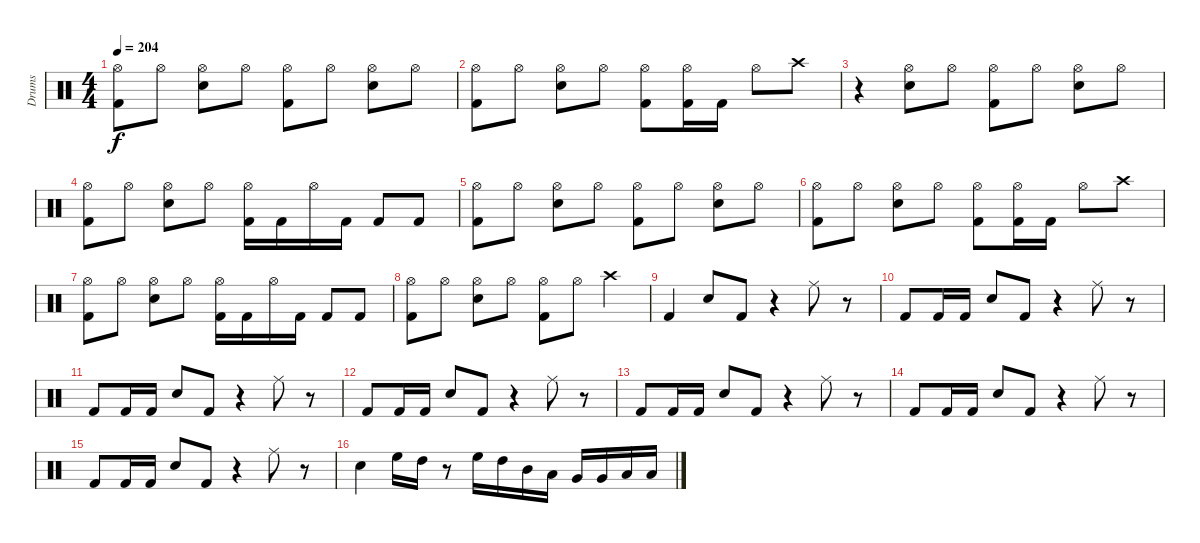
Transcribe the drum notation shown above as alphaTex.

\track ("Drums" "Drums") {instrument percussion}
\staff {score}
\articulation defaults
\ts (4 4)
\tempo 204
\clef neutral
\ks c
("Hi-Hat (open)" "Kick (hit) 2").8{dy f} "Hi-Hat (open)".8 ("Hi-Hat (open)" "Snare (hit) 2").8 "Hi-Hat (open)".8 ("Hi-Hat (open)" "Kick (hit) 2").8 "Hi-Hat (open)".8 ("Hi-Hat (open)" "Snare (hit) 2").8 "Hi-Hat (open)".8 |
("Hi-Hat (open)" "Kick (hit) 2").8 "Hi-Hat (open)".8 ("Hi-Hat (open)" "Snare (hit) 2").8 "Hi-Hat (open)".8 ("Hi-Hat (open)" "Kick (hit) 2").8 ("Hi-Hat (open)" "Kick (hit) 2").16 "Kick (hit) 2".16 "Hi-Hat (open)".8 "Crash high (hit)".8 |
r.4 ("Hi-Hat (open)" "Snare (hit) 2").8 "Hi-Hat (open)".8 ("Hi-Hat (open)" "Kick (hit) 2").8 "Hi-Hat (open)".8 ("Hi-Hat (open)" "Snare (hit) 2").8 "Hi-Hat (open)".8 |
("Hi-Hat (open)" "Kick (hit) 2").8 "Hi-Hat (open)".8 ("Hi-Hat (open)" "Snare (hit) 2").8 "Hi-Hat (open)".8 ("Hi-Hat (open)" "Kick (hit) 2").16 "Kick (hit) 2".16 "Hi-Hat (open)".16 "Kick (hit) 2".16 "Kick (hit) 2".8 "Kick (hit) 2".8 |
("Hi-Hat (open)" "Kick (hit) 2").8 "Hi-Hat (open)".8 ("Hi-Hat (open)" "Snare (hit) 2").8 "Hi-Hat (open)".8 ("Hi-Hat (open)" "Kick (hit) 2").8 "Hi-Hat (open)".8 ("Hi-Hat (open)" "Snare (hit) 2").8 "Hi-Hat (open)".8 |
("Hi-Hat (open)" "Kick (hit) 2").8 "Hi-Hat (open)".8 ("Hi-Hat (open)" "Snare (hit) 2").8 "Hi-Hat (open)".8 ("Hi-Hat (open)" "Kick (hit) 2").8 ("Hi-Hat (open)" "Kick (hit) 2").16 "Kick (hit) 2".16 "Hi-Hat (open)".8 "Crash high (hit)".8 |
("Hi-Hat (open)" "Kick (hit) 2").8 "Hi-Hat (open)".8 ("Hi-Hat (open)" "Snare (hit) 2").8 "Hi-Hat (open)".8 ("Hi-Hat (open)" "Kick (hit) 2").16 "Kick (hit) 2".16 "Hi-Hat (open)".16 "Kick (hit) 2".16 "Kick (hit) 2".8 "Kick (hit) 2".8 |
("Hi-Hat (open)" "Kick (hit) 2").8 "Hi-Hat (open)".8 ("Hi-Hat (open)" "Snare (hit) 2").8 "Hi-Hat (open)".8 ("Hi-Hat (open)" "Kick (hit) 2").8 "Hi-Hat (open)".8 "Crash high (hit)".4 |
"Kick (hit) 2".4 "Snare (hit) 2".8 "Kick (hit) 2".8 r.4 "Ride (middle)".8 r.8 |
"Kick (hit) 2".8 "Kick (hit) 2".16 "Kick (hit) 2".16 "Snare (hit) 2".8 "Kick (hit) 2".8 r.4 "Ride (middle)".8 r.8 |
"Kick (hit) 2".8 "Kick (hit) 2".16 "Kick (hit) 2".16 "Snare (hit) 2".8 "Kick (hit) 2".8 r.4 "Ride (middle)".8 r.8 |
"Kick (hit) 2".8 "Kick (hit) 2".16 "Kick (hit) 2".16 "Snare (hit) 2".8 "Kick (hit) 2".8 r.4 "Ride (middle)".8 r.8 |
"Kick (hit) 2".8 "Kick (hit) 2".16 "Kick (hit) 2".16 "Snare (hit) 2".8 "Kick (hit) 2".8 r.4 "Ride (middle)".8 r.8 |
"Kick (hit) 2".8 "Kick (hit) 2".16 "Kick (hit) 2".16 "Snare (hit) 2".8 "Kick (hit) 2".8 r.4 "Ride (middle)".8 r.8 |
"Kick (hit) 2".8 "Kick (hit) 2".16 "Kick (hit) 2".16 "Snare (hit) 2".8 "Kick (hit) 2".8 r.4 "Ride (middle)".8 r.8 |
"Snare (hit) 2".4 "High Floor Tom (hit)".16 "High Tom (hit)".16 r.8 "High Floor Tom (hit)".16 "High Tom (hit)".16 "Mid Tom (hit)".16 "Low Tom (hit)".16 "Very Low Tom (hit)".16 "Very Low Tom (hit)".16 "Low Floor Tom (hit)".16 "Low Floor Tom (hit)".16
